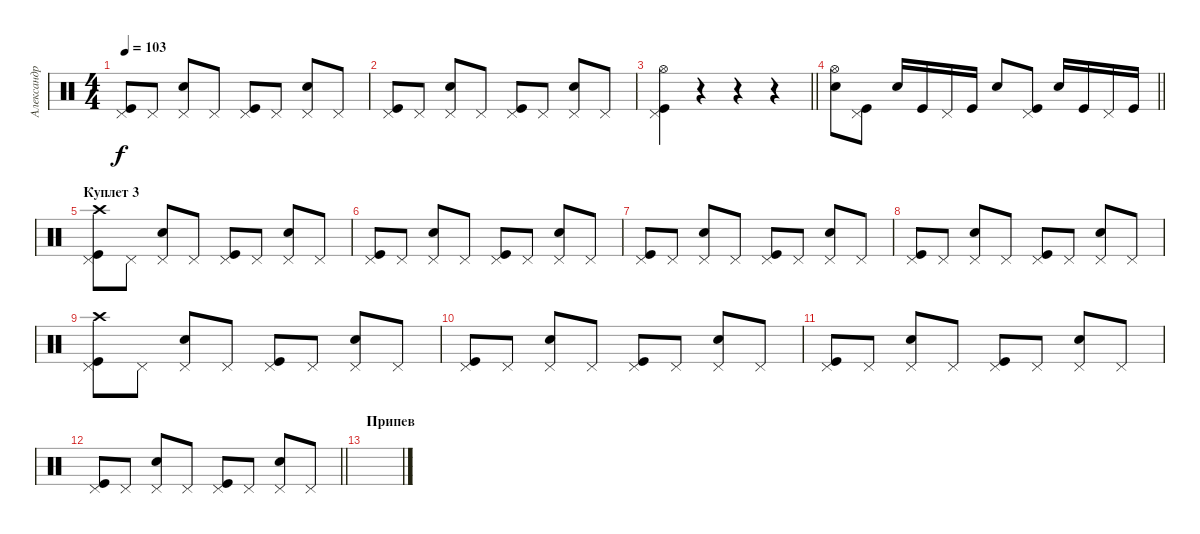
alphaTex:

\track ("Александр Ерохин (ударные)" "Александр ") {instrument percussion}
\staff {score}
\articulation defaults
\ts (4 4)
\tempo 103
\clef neutral
\ks c
("Kick (hit)" "Pedal Hi-Hat (hit)").8{dy f} "Pedal Hi-Hat (hit)".8 ("Pedal Hi-Hat (hit)" "Snare (hit) 2").8 "Pedal Hi-Hat (hit)".8 ("Kick (hit)" "Pedal Hi-Hat (hit)").8 "Pedal Hi-Hat (hit)".8 ("Pedal Hi-Hat (hit)" "Snare (hit) 2").8 "Pedal Hi-Hat (hit)".8 |
("Kick (hit)" "Pedal Hi-Hat (hit)").8 "Pedal Hi-Hat (hit)".8 ("Pedal Hi-Hat (hit)" "Snare (hit) 2").8 "Pedal Hi-Hat (hit)".8 ("Kick (hit)" "Pedal Hi-Hat (hit)").8 "Pedal Hi-Hat (hit)".8 ("Pedal Hi-Hat (hit)" "Snare (hit) 2").8 "Pedal Hi-Hat (hit)".8 |
\barLineRight lightlight
("Kick (hit)" "Pedal Hi-Hat (hit)" "Hi-Hat (open)").4 r.4 r.4 r.4 |
\barLineRight lightlight
("Snare (hit) 2" "Hi-Hat (open)").8 ("Kick (hit)" "Pedal Hi-Hat (hit)").8 "Snare (hit) 2".16 "Kick (hit)".16 "Pedal Hi-Hat (hit)".16 "Kick (hit)".16 "Snare (hit) 2".8 ("Kick (hit)" "Pedal Hi-Hat (hit)").8 "Snare (hit) 2".16 "Kick (hit)".16 "Pedal Hi-Hat (hit)".16 "Kick (hit)".16 |
\section ("" "Куплет 3")
("Kick (hit)" "Pedal Hi-Hat (hit)" "Crash high (hit)").8 "Pedal Hi-Hat (hit)".8 ("Pedal Hi-Hat (hit)" "Snare (hit) 2").8 "Pedal Hi-Hat (hit)".8 ("Kick (hit)" "Pedal Hi-Hat (hit)").8 "Pedal Hi-Hat (hit)".8 ("Pedal Hi-Hat (hit)" "Snare (hit) 2").8 "Pedal Hi-Hat (hit)".8 |
("Kick (hit)" "Pedal Hi-Hat (hit)").8 "Pedal Hi-Hat (hit)".8 ("Pedal Hi-Hat (hit)" "Snare (hit) 2").8 "Pedal Hi-Hat (hit)".8 ("Kick (hit)" "Pedal Hi-Hat (hit)").8 "Pedal Hi-Hat (hit)".8 ("Pedal Hi-Hat (hit)" "Snare (hit) 2").8 "Pedal Hi-Hat (hit)".8 |
("Kick (hit)" "Pedal Hi-Hat (hit)").8 "Pedal Hi-Hat (hit)".8 ("Pedal Hi-Hat (hit)" "Snare (hit) 2").8 "Pedal Hi-Hat (hit)".8 ("Kick (hit)" "Pedal Hi-Hat (hit)").8 "Pedal Hi-Hat (hit)".8 ("Pedal Hi-Hat (hit)" "Snare (hit) 2").8 "Pedal Hi-Hat (hit)".8 |
("Kick (hit)" "Pedal Hi-Hat (hit)").8 "Pedal Hi-Hat (hit)".8 ("Pedal Hi-Hat (hit)" "Snare (hit) 2").8 "Pedal Hi-Hat (hit)".8 ("Kick (hit)" "Pedal Hi-Hat (hit)").8 "Pedal Hi-Hat (hit)".8 ("Pedal Hi-Hat (hit)" "Snare (hit) 2").8 "Pedal Hi-Hat (hit)".8 |
("Kick (hit)" "Pedal Hi-Hat (hit)" "Crash high (hit)").8 "Pedal Hi-Hat (hit)".8 ("Pedal Hi-Hat (hit)" "Snare (hit) 2").8 "Pedal Hi-Hat (hit)".8 ("Kick (hit)" "Pedal Hi-Hat (hit)").8 "Pedal Hi-Hat (hit)".8 ("Pedal Hi-Hat (hit)" "Snare (hit) 2").8 "Pedal Hi-Hat (hit)".8 |
("Kick (hit)" "Pedal Hi-Hat (hit)").8 "Pedal Hi-Hat (hit)".8 ("Pedal Hi-Hat (hit)" "Snare (hit) 2").8 "Pedal Hi-Hat (hit)".8 ("Kick (hit)" "Pedal Hi-Hat (hit)").8 "Pedal Hi-Hat (hit)".8 ("Pedal Hi-Hat (hit)" "Snare (hit) 2").8 "Pedal Hi-Hat (hit)".8 |
("Kick (hit)" "Pedal Hi-Hat (hit)").8 "Pedal Hi-Hat (hit)".8 ("Pedal Hi-Hat (hit)" "Snare (hit) 2").8 "Pedal Hi-Hat (hit)".8 ("Kick (hit)" "Pedal Hi-Hat (hit)").8 "Pedal Hi-Hat (hit)".8 ("Pedal Hi-Hat (hit)" "Snare (hit) 2").8 "Pedal Hi-Hat (hit)".8 |
\barLineRight lightlight
("Kick (hit)" "Pedal Hi-Hat (hit)").8 "Pedal Hi-Hat (hit)".8 ("Pedal Hi-Hat (hit)" "Snare (hit) 2").8 "Pedal Hi-Hat (hit)".8 ("Kick (hit)" "Pedal Hi-Hat (hit)").8 "Pedal Hi-Hat (hit)".8 ("Pedal Hi-Hat (hit)" "Snare (hit) 2").8 "Pedal Hi-Hat (hit)".8 |
\section ("" "Припев")
